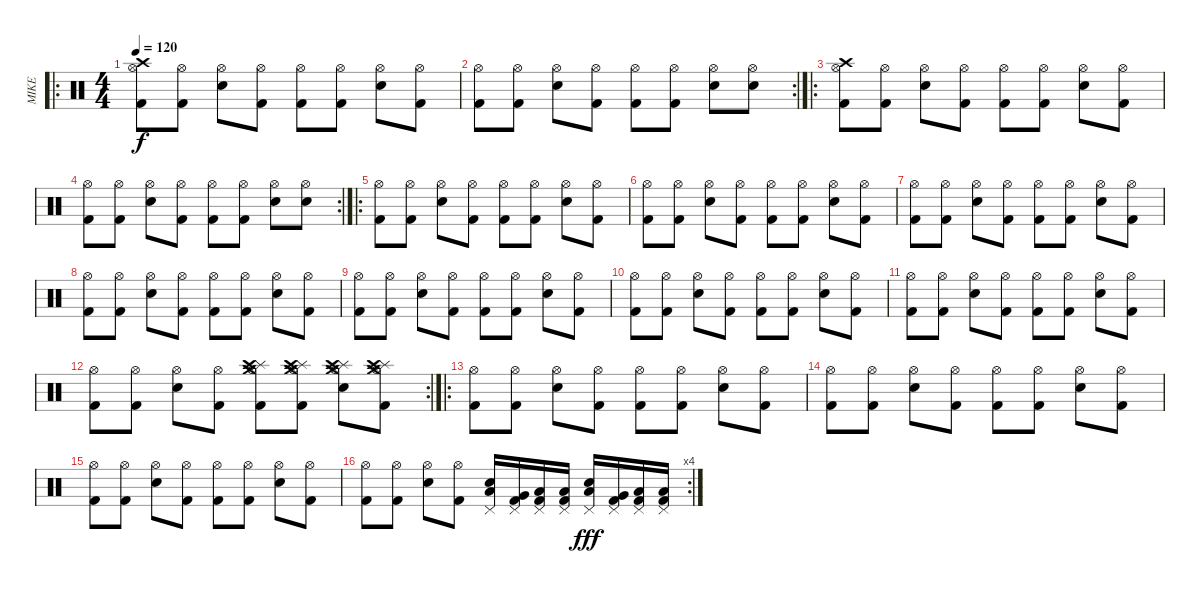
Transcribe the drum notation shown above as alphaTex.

\track ("MIKE" "MIKE") {instrument percussion}
\staff {score}
\articulation defaults
\ro
\ts (4 4)
\tempo 120
\clef neutral
\ks c
("Crash high (hit)" "Hi-Hat (open)" "Kick (hit) 2").8{dy f} ("Hi-Hat (open)" "Kick (hit) 2").8 ("Hi-Hat (open)" "Snare (hit) 2").8 ("Hi-Hat (open)" "Kick (hit) 2").8 ("Hi-Hat (open)" "Kick (hit) 2").8 ("Hi-Hat (open)" "Kick (hit) 2").8 ("Hi-Hat (open)" "Snare (hit) 2").8 ("Hi-Hat (open)" "Kick (hit) 2").8 |
\rc 2
("Hi-Hat (open)" "Kick (hit) 2").8 ("Hi-Hat (open)" "Kick (hit) 2").8 ("Hi-Hat (open)" "Snare (hit) 2").8 ("Hi-Hat (open)" "Kick (hit) 2").8 ("Hi-Hat (open)" "Kick (hit) 2").8 ("Hi-Hat (open)" "Kick (hit) 2").8 ("Hi-Hat (open)" "Snare (hit) 2").8 ("Hi-Hat (open)" "Snare (hit) 2").8 |
\ro
("Crash high (hit)" "Hi-Hat (open)" "Kick (hit) 2").8 ("Hi-Hat (open)" "Kick (hit) 2").8 ("Hi-Hat (open)" "Snare (hit) 2").8 ("Hi-Hat (open)" "Kick (hit) 2").8 ("Hi-Hat (open)" "Kick (hit) 2").8 ("Hi-Hat (open)" "Kick (hit) 2").8 ("Hi-Hat (open)" "Snare (hit) 2").8 ("Hi-Hat (open)" "Kick (hit) 2").8 |
\rc 2
("Hi-Hat (open)" "Kick (hit) 2").8 ("Hi-Hat (open)" "Kick (hit) 2").8 ("Hi-Hat (open)" "Snare (hit) 2").8 ("Hi-Hat (open)" "Kick (hit) 2").8 ("Hi-Hat (open)" "Kick (hit) 2").8 ("Hi-Hat (open)" "Kick (hit) 2").8 ("Hi-Hat (open)" "Snare (hit) 2").8 ("Hi-Hat (open)" "Snare (hit) 2").8 |
\ro
("Hi-Hat (open)" "Kick (hit) 2").8 ("Hi-Hat (open)" "Kick (hit) 2").8 ("Hi-Hat (open)" "Snare (hit) 2").8 ("Hi-Hat (open)" "Kick (hit) 2").8 ("Hi-Hat (open)" "Kick (hit) 2").8 ("Hi-Hat (open)" "Kick (hit) 2").8 ("Hi-Hat (open)" "Snare (hit) 2").8 ("Hi-Hat (open)" "Kick (hit) 2").8 |
("Hi-Hat (open)" "Kick (hit) 2").8 ("Hi-Hat (open)" "Kick (hit) 2").8 ("Hi-Hat (open)" "Snare (hit) 2").8 ("Hi-Hat (open)" "Kick (hit) 2").8 ("Hi-Hat (open)" "Kick (hit) 2").8 ("Hi-Hat (open)" "Kick (hit) 2").8 ("Hi-Hat (open)" "Snare (hit) 2").8 ("Hi-Hat (open)" "Kick (hit) 2").8 |
("Hi-Hat (open)" "Kick (hit) 2").8 ("Hi-Hat (open)" "Kick (hit) 2").8 ("Hi-Hat (open)" "Snare (hit) 2").8 ("Hi-Hat (open)" "Kick (hit) 2").8 ("Hi-Hat (open)" "Kick (hit) 2").8 ("Hi-Hat (open)" "Kick (hit) 2").8 ("Hi-Hat (open)" "Snare (hit) 2").8 ("Hi-Hat (open)" "Kick (hit) 2").8 |
("Hi-Hat (open)" "Kick (hit) 2").8 ("Hi-Hat (open)" "Kick (hit) 2").8 ("Hi-Hat (open)" "Snare (hit) 2").8 ("Hi-Hat (open)" "Kick (hit) 2").8 ("Hi-Hat (open)" "Kick (hit) 2").8 ("Hi-Hat (open)" "Kick (hit) 2").8 ("Hi-Hat (open)" "Snare (hit) 2").8 ("Hi-Hat (open)" "Kick (hit) 2").8 |
("Hi-Hat (open)" "Kick (hit) 2").8 ("Hi-Hat (open)" "Kick (hit) 2").8 ("Hi-Hat (open)" "Snare (hit) 2").8 ("Hi-Hat (open)" "Kick (hit) 2").8 ("Hi-Hat (open)" "Kick (hit) 2").8 ("Hi-Hat (open)" "Kick (hit) 2").8 ("Hi-Hat (open)" "Snare (hit) 2").8 ("Hi-Hat (open)" "Kick (hit) 2").8 |
("Hi-Hat (open)" "Kick (hit) 2").8 ("Hi-Hat (open)" "Kick (hit) 2").8 ("Hi-Hat (open)" "Snare (hit) 2").8 ("Hi-Hat (open)" "Kick (hit) 2").8 ("Hi-Hat (open)" "Kick (hit) 2").8 ("Hi-Hat (open)" "Kick (hit) 2").8 ("Hi-Hat (open)" "Snare (hit) 2").8 ("Hi-Hat (open)" "Kick (hit) 2").8 |
("Hi-Hat (open)" "Kick (hit) 2").8 ("Hi-Hat (open)" "Kick (hit) 2").8 ("Hi-Hat (open)" "Snare (hit) 2").8 ("Hi-Hat (open)" "Kick (hit) 2").8 ("Hi-Hat (open)" "Kick (hit) 2").8 ("Hi-Hat (open)" "Kick (hit) 2").8 ("Hi-Hat (open)" "Snare (hit) 2").8 ("Hi-Hat (open)" "Kick (hit) 2").8 |
\rc 2
("Hi-Hat (open)" "Kick (hit) 2").8 ("Hi-Hat (open)" "Kick (hit) 2").8 ("Hi-Hat (open)" "Snare (hit) 2").8 ("Hi-Hat (open)" "Kick (hit) 2").8 ("Splash (hit)" "Crash medium (hit)" "Crash high (hit)" "Hi-Hat (open)" "Kick (hit) 2").8 ("Splash (hit)" "Crash medium (hit)" "Crash high (hit)" "Hi-Hat (open)" "Kick (hit) 2").8 ("Splash (hit)" "Crash medium (hit)" "Crash high (hit)" "Hi-Hat (open)" "Snare (hit) 2").8 ("Splash (hit)" "Crash medium (hit)" "Crash high (hit)" "Hi-Hat (open)" "Kick (hit) 2").8 |
\ro
("Hi-Hat (open)" "Kick (hit) 2").8 ("Hi-Hat (open)" "Kick (hit) 2").8 ("Hi-Hat (open)" "Snare (hit) 2").8 ("Hi-Hat (open)" "Kick (hit) 2").8 ("Hi-Hat (open)" "Kick (hit) 2").8 ("Hi-Hat (open)" "Kick (hit) 2").8 ("Hi-Hat (open)" "Snare (hit) 2").8 ("Hi-Hat (open)" "Kick (hit) 2").8 |
("Hi-Hat (open)" "Kick (hit) 2").8 ("Hi-Hat (open)" "Kick (hit) 2").8 ("Hi-Hat (open)" "Snare (hit) 2").8 ("Hi-Hat (open)" "Kick (hit) 2").8 ("Hi-Hat (open)" "Kick (hit) 2").8 ("Hi-Hat (open)" "Kick (hit) 2").8 ("Hi-Hat (open)" "Snare (hit) 2").8 ("Hi-Hat (open)" "Kick (hit) 2").8 |
("Hi-Hat (open)" "Kick (hit) 2").8 ("Hi-Hat (open)" "Kick (hit) 2").8 ("Hi-Hat (open)" "Snare (hit) 2").8 ("Hi-Hat (open)" "Kick (hit) 2").8 ("Hi-Hat (open)" "Kick (hit) 2").8 ("Hi-Hat (open)" "Kick (hit) 2").8 ("Hi-Hat (open)" "Snare (hit) 2").8 ("Hi-Hat (open)" "Kick (hit) 2").8 |
\rc 4
("Hi-Hat (open)" "Kick (hit) 2").8 ("Hi-Hat (open)" "Kick (hit) 2").8 ("Hi-Hat (open)" "Snare (hit) 2").8 ("Hi-Hat (open)" "Kick (hit) 2").8 ("Pedal Hi-Hat (hit)" "Low Tom (hit)" "Snare (hit) 2").16 ("Pedal Hi-Hat (hit)" "Very Low Tom (hit)" "Kick (hit) 2").16 ("Pedal Hi-Hat (hit)" "Low Floor Tom (hit)" "Kick (hit) 2").16 ("Pedal Hi-Hat (hit)" "Low Floor Tom (hit)" "Kick (hit) 2").16 ("Pedal Hi-Hat (hit)" "Low Tom (hit)" "Snare (hit) 2").16{dy fff} ("Pedal Hi-Hat (hit)" "Very Low Tom (hit)" "Kick (hit) 2").16 ("Pedal Hi-Hat (hit)" "Low Floor Tom (hit)" "Kick (hit) 2").16 ("Pedal Hi-Hat (hit)" "Low Floor Tom (hit)" "Kick (hit) 2").16
